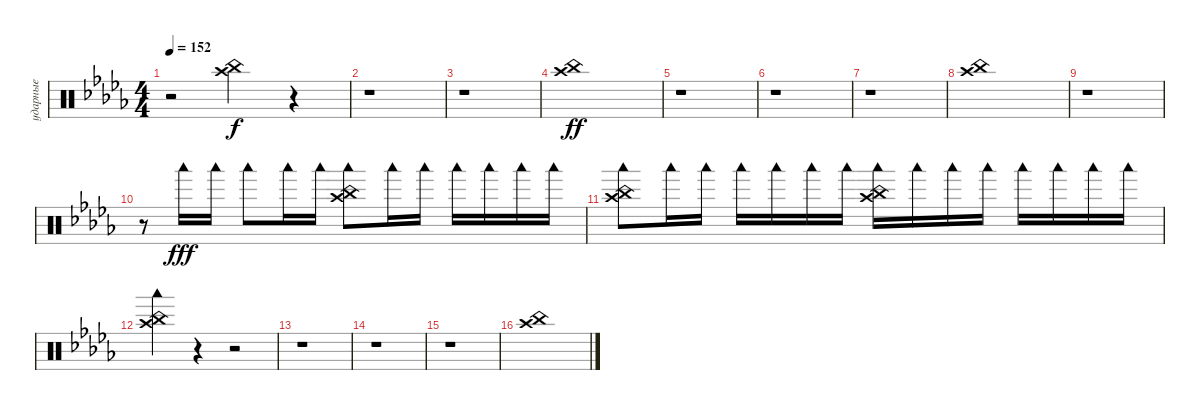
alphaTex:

\track ("ударные" "ударные") {instrument percussion}
\staff {score}
\articulation defaults
\ts (4 4)
\tempo 152
\clef neutral
\ks bbminor
r.2{dy f} ("China (hit)" "Crash high (hit)").4 r.4 |
r.1 |
r.1 |
("China (hit)" "Crash high (hit)").1{dy ff} |
r.1 |
r.1 |
r.1 |
("China (hit)" "Crash high (hit)").1 |
r.1 |
r.8 "Woodblock low (hit)".16{dy fff} "Woodblock low (hit)".16 "Woodblock low (hit)".8 "Woodblock low (hit)".16 "Woodblock low (hit)".16 ("Woodblock low (hit)" "China (hit)" "Crash high (hit)").8 "Woodblock low (hit)".16 "Woodblock low (hit)".16 "Woodblock low (hit)".16 "Woodblock low (hit)".16 "Woodblock low (hit)".16 "Woodblock low (hit)".16 |
("Woodblock low (hit)" "China (hit)" "Crash high (hit)").8 "Woodblock low (hit)".16 "Woodblock low (hit)".16 "Woodblock low (hit)".16 "Woodblock low (hit)".16 "Woodblock low (hit)".16 "Woodblock low (hit)".16 ("Woodblock low (hit)" "China (hit)" "Crash high (hit)").16 "Woodblock low (hit)".16 "Woodblock low (hit)".16 "Woodblock low (hit)".16 "Woodblock low (hit)".16 "Woodblock low (hit)".16 "Woodblock low (hit)".16 "Woodblock low (hit)".16 |
("Woodblock low (hit)" "China (hit)" "Crash high (hit)").4 r.4 r.2 |
r.1 |
r.1 |
r.1 |
("China (hit)" "Crash high (hit)").1
